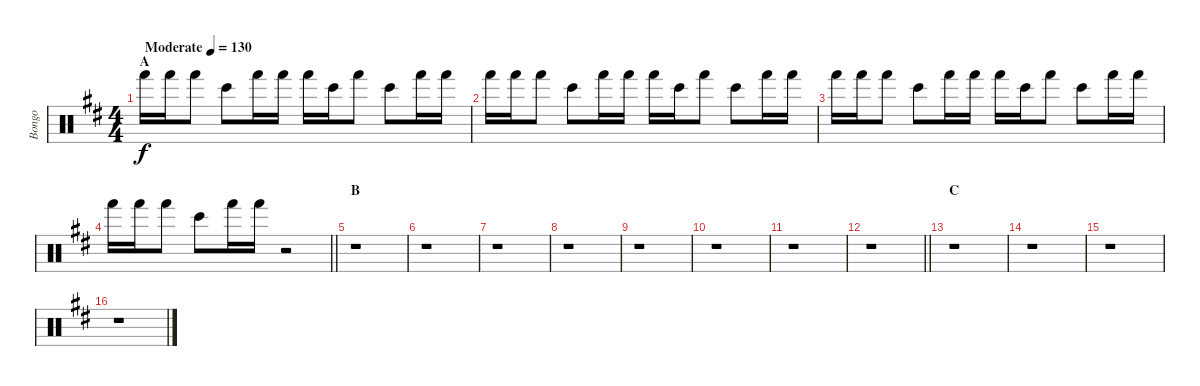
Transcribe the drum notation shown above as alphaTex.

\track ("Bongo" "Bongo") {instrument percussion}
\staff {score}
\articulation defaults
\ts (4 4)
\section ("" "A")
\tempo (130 "Moderate")
\clef neutral
\ks d "Hand (hit)".16{dy f} "Hand (hit)".16 "Hand (hit)".8 "Bongo High (hit)".8 "Hand (hit)".16 "Hand (hit)".16 "Hand (hit)".16 "Bongo High (hit)".16 "Hand (hit)".8 "Bongo High (hit)".8 "Hand (hit)".16 "Hand (hit)".16
|
"Hand (hit)".16 "Hand (hit)".16 "Hand (hit)".8 "Bongo High (hit)".8 "Hand (hit)".16 "Hand (hit)".16 "Hand (hit)".16 "Bongo High (hit)".16 "Hand (hit)".8 "Bongo High (hit)".8 "Hand (hit)".16 "Hand (hit)".16 |
"Hand (hit)".16 "Hand (hit)".16 "Hand (hit)".8 "Bongo High (hit)".8 "Hand (hit)".16 "Hand (hit)".16 "Hand (hit)".16 "Bongo High (hit)".16 "Hand (hit)".8 "Bongo High (hit)".8 "Hand (hit)".16 "Hand (hit)".16 |
\barLineRight lightlight "Hand (hit)".16 "Hand (hit)".16 "Hand (hit)".8 "Bongo High (hit)".8 "Hand (hit)".16 "Hand (hit)".16
r.2 |
\section ("" "B")
r.1 |
r.1 |
r.1 |
r.1 |
r.1 |
r.1 |
r.1 |
\barLineRight lightlight
r.1 |
\section ("" "C")
r.1 |
r.1 |
r.1 |
r.1
